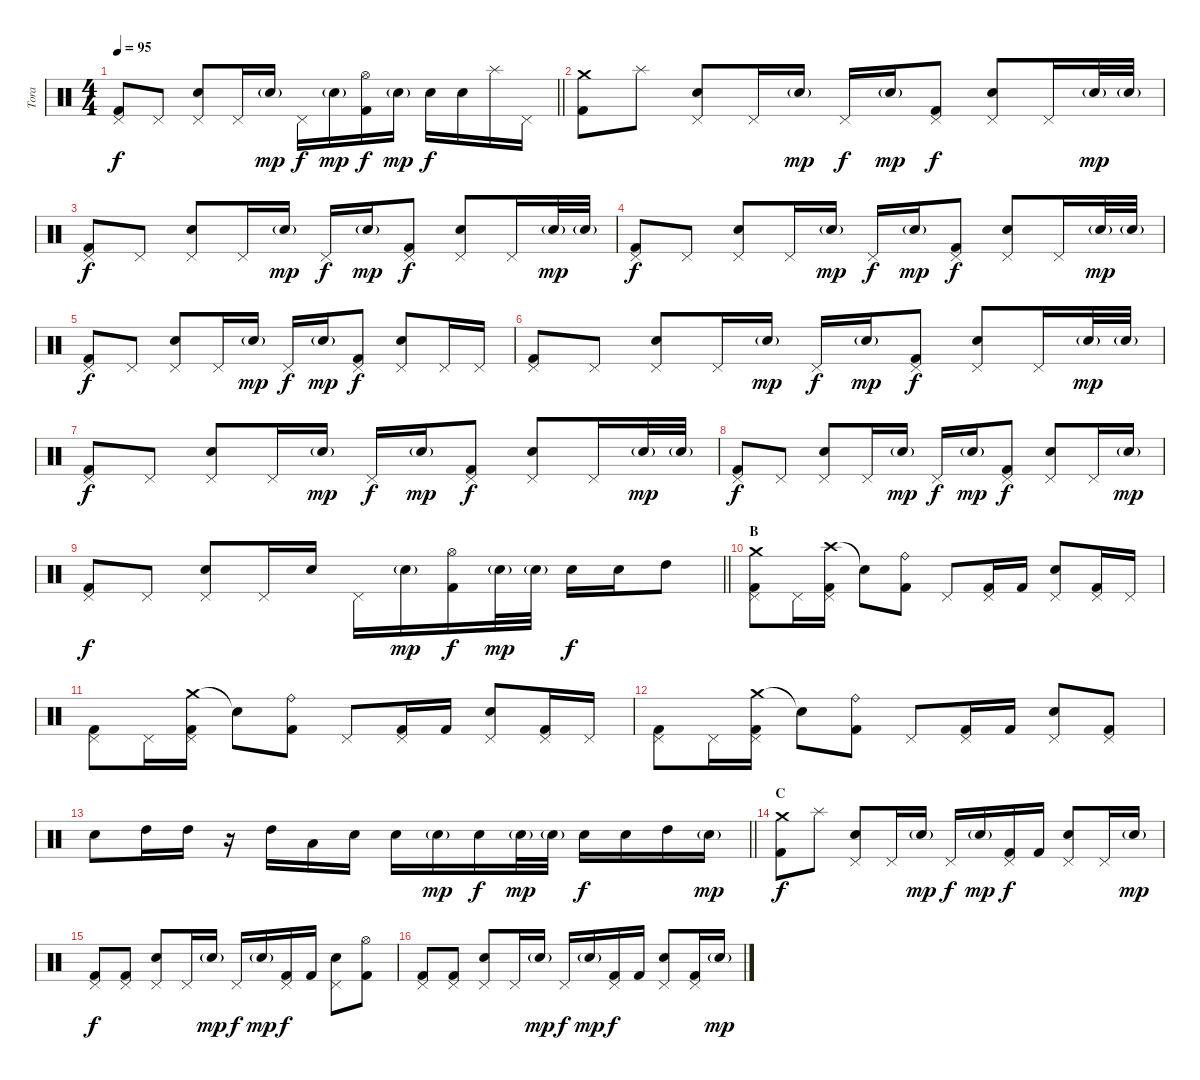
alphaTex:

\track ("Tora" "Tora") {instrument percussion}
\staff {score}
\articulation defaults
\ts (4 4)
\tempo 95
\clef neutral
\barLineRight lightlight
\ks c
("Pedal Hi-Hat (hit)" "Kick (hit) 2").8{dy f} "Pedal Hi-Hat (hit)".8 ("Pedal Hi-Hat (hit)" "Electric Snare (hit)").8 "Pedal Hi-Hat (hit)".16 "Electric Snare (hit)"{g}.16{dy mp} "Pedal Hi-Hat (hit)".16{dy f} "Electric Snare (hit)"{g}.16{dy mp} ("Hi-Hat (open)" "Kick (hit) 2").16{dy f} "Electric Snare (hit)"{g}.16{dy mp} "Electric Snare (hit)".16{dy f} "Electric Snare (hit)".16 "Splash (hit)".16 "Pedal Hi-Hat (hit)".16 |
("Crash medium (hit)" "Kick (hit) 2").8 "Splash (hit)".8 ("Pedal Hi-Hat (hit)" "Electric Snare (hit)").8 "Pedal Hi-Hat (hit)".16 "Electric Snare (hit)"{g}.16{dy mp} "Pedal Hi-Hat (hit)".16{dy f} "Electric Snare (hit)"{g}.16{dy mp} ("Pedal Hi-Hat (hit)" "Kick (hit) 2").8{dy f} ("Pedal Hi-Hat (hit)" "Electric Snare (hit)").8 "Pedal Hi-Hat (hit)".16 "Electric Snare (hit)"{g}.32{dy mp} "Electric Snare (hit)"{g}.32 |
("Pedal Hi-Hat (hit)" "Kick (hit) 2").8{dy f} "Pedal Hi-Hat (hit)".8 ("Pedal Hi-Hat (hit)" "Electric Snare (hit)").8 "Pedal Hi-Hat (hit)".16 "Electric Snare (hit)"{g}.16{dy mp} "Pedal Hi-Hat (hit)".16{dy f} "Electric Snare (hit)"{g}.16{dy mp} ("Pedal Hi-Hat (hit)" "Kick (hit) 2").8{dy f} ("Pedal Hi-Hat (hit)" "Electric Snare (hit)").8 "Pedal Hi-Hat (hit)".16 "Electric Snare (hit)"{g}.32{dy mp} "Electric Snare (hit)"{g}.32 |
("Pedal Hi-Hat (hit)" "Kick (hit) 2").8{dy f} "Pedal Hi-Hat (hit)".8 ("Pedal Hi-Hat (hit)" "Electric Snare (hit)").8 "Pedal Hi-Hat (hit)".16 "Electric Snare (hit)"{g}.16{dy mp} "Pedal Hi-Hat (hit)".16{dy f} "Electric Snare (hit)"{g}.16{dy mp} ("Pedal Hi-Hat (hit)" "Kick (hit) 2").8{dy f} ("Pedal Hi-Hat (hit)" "Electric Snare (hit)").8 "Pedal Hi-Hat (hit)".16 "Electric Snare (hit)"{g}.32{dy mp} "Electric Snare (hit)"{g}.32 |
("Pedal Hi-Hat (hit)" "Kick (hit) 2").8{dy f} "Pedal Hi-Hat (hit)".8 ("Pedal Hi-Hat (hit)" "Electric Snare (hit)").8 "Pedal Hi-Hat (hit)".16 "Electric Snare (hit)"{g}.16{dy mp} "Pedal Hi-Hat (hit)".16{dy f} "Electric Snare (hit)"{g}.16{dy mp} ("Pedal Hi-Hat (hit)" "Kick (hit) 2").8{dy f} ("Pedal Hi-Hat (hit)" "Electric Snare (hit)").8 "Pedal Hi-Hat (hit)".16 "Pedal Hi-Hat (hit)".16 |
("Pedal Hi-Hat (hit)" "Kick (hit) 2").8 "Pedal Hi-Hat (hit)".8 ("Pedal Hi-Hat (hit)" "Electric Snare (hit)").8 "Pedal Hi-Hat (hit)".16 "Electric Snare (hit)"{g}.16{dy mp} "Pedal Hi-Hat (hit)".16{dy f} "Electric Snare (hit)"{g}.16{dy mp} ("Pedal Hi-Hat (hit)" "Kick (hit) 2").8{dy f} ("Pedal Hi-Hat (hit)" "Electric Snare (hit)").8 "Pedal Hi-Hat (hit)".16 "Electric Snare (hit)"{g}.32{dy mp} "Electric Snare (hit)"{g}.32 |
("Pedal Hi-Hat (hit)" "Kick (hit) 2").8{dy f} "Pedal Hi-Hat (hit)".8 ("Pedal Hi-Hat (hit)" "Electric Snare (hit)").8 "Pedal Hi-Hat (hit)".16 "Electric Snare (hit)"{g}.16{dy mp} "Pedal Hi-Hat (hit)".16{dy f} "Electric Snare (hit)"{g}.16{dy mp} ("Pedal Hi-Hat (hit)" "Kick (hit) 2").8{dy f} ("Pedal Hi-Hat (hit)" "Electric Snare (hit)").8 "Pedal Hi-Hat (hit)".16 "Electric Snare (hit)"{g}.32{dy mp} "Electric Snare (hit)"{g}.32 |
("Pedal Hi-Hat (hit)" "Kick (hit) 2").8{dy f} "Pedal Hi-Hat (hit)".8 ("Pedal Hi-Hat (hit)" "Electric Snare (hit)").8 "Pedal Hi-Hat (hit)".16 "Electric Snare (hit)"{g}.16{dy mp} "Pedal Hi-Hat (hit)".16{dy f} "Electric Snare (hit)"{g}.16{dy mp} ("Pedal Hi-Hat (hit)" "Kick (hit) 2").8{dy f} ("Pedal Hi-Hat (hit)" "Electric Snare (hit)").8 "Pedal Hi-Hat (hit)".16 "Electric Snare (hit)"{g}.16{dy mp} |
\barLineRight lightlight
("Pedal Hi-Hat (hit)" "Kick (hit) 2").8{dy f} "Pedal Hi-Hat (hit)".8 ("Pedal Hi-Hat (hit)" "Electric Snare (hit)").8 "Pedal Hi-Hat (hit)".16 "Electric Snare (hit)".16 "Pedal Hi-Hat (hit)".16 "Electric Snare (hit)"{g}.16{dy mp} ("Hi-Hat (open)" "Kick (hit) 2").16{dy f} "Electric Snare (hit)"{g}.32{dy mp} "Electric Snare (hit)"{g}.32 "Electric Snare (hit)".16{dy f} "Electric Snare (hit)".16 "High Tom (hit)".8 |
\section ("" "B")
("Crash medium (hit)" "Pedal Hi-Hat (hit)" "Kick (hit) 2").8 "Pedal Hi-Hat (hit)".16 ("Crash high (hit)" "Pedal Hi-Hat (hit)" "Kick (hit) 2").16 "Snare (hit)"{t}.8 ("Ride (bell)" "Kick (hit) 2").8 "Pedal Hi-Hat (hit)".8 ("Pedal Hi-Hat (hit)" "Kick (hit) 2").16 "Kick (hit) 2".16 ("Pedal Hi-Hat (hit)" "Electric Snare (hit)").8 ("Pedal Hi-Hat (hit)" "Kick (hit) 2").16 "Pedal Hi-Hat (hit)".16 |
("Pedal Hi-Hat (hit)" "Kick (hit) 2").8 "Pedal Hi-Hat (hit)".16 ("Crash medium (hit)" "Pedal Hi-Hat (hit)" "Kick (hit) 2").16 "Snare (hit)"{t}.8 ("Ride (bell)" "Kick (hit) 2").8 "Pedal Hi-Hat (hit)".8 ("Pedal Hi-Hat (hit)" "Kick (hit) 2").16 "Kick (hit) 2".16 ("Pedal Hi-Hat (hit)" "Electric Snare (hit)").8 ("Pedal Hi-Hat (hit)" "Kick (hit) 2").16 "Pedal Hi-Hat (hit)".16 |
("Pedal Hi-Hat (hit)" "Kick (hit) 2").8 "Pedal Hi-Hat (hit)".16 ("Crash medium (hit)" "Pedal Hi-Hat (hit)" "Kick (hit) 2").16 "Snare (hit)"{t}.8 ("Ride (bell)" "Kick (hit) 2").8 "Pedal Hi-Hat (hit)".8 ("Pedal Hi-Hat (hit)" "Kick (hit) 2").16 "Kick (hit) 2".16 ("Pedal Hi-Hat (hit)" "Electric Snare (hit)").8 ("Pedal Hi-Hat (hit)" "Kick (hit) 2").8 |
\barLineRight lightlight "Electric Snare (hit)".8 "High Tom (hit)".16 "High Tom (hit)".16
r.16 "High Tom (hit)".16 "Low Tom (hit)".16 "Electric Snare (hit)".16 "Electric Snare (hit)".16 "Electric Snare (hit)"{g}.16{dy mp} "Electric Snare (hit)".16{dy f} "Electric Snare (hit)"{g}.32{dy mp} "Electric Snare (hit)"{g}.32 "Electric Snare (hit)".16{dy f} "Electric Snare (hit)".16 "High Tom (hit)".16 "Electric Snare (hit)"{g}.16{dy mp} |
\section ("" "C")
("Crash medium (hit)" "Kick (hit) 2").8{dy f} "Splash (hit)".8 ("Pedal Hi-Hat (hit)" "Electric Snare (hit)").8 "Pedal Hi-Hat (hit)".16 "Electric Snare (hit)"{g}.16{dy mp} "Pedal Hi-Hat (hit)".16{dy f} "Electric Snare (hit)"{g}.16{dy mp} ("Pedal Hi-Hat (hit)" "Kick (hit) 2").16{dy f} "Kick (hit) 2".16 ("Pedal Hi-Hat (hit)" "Electric Snare (hit)").8 "Pedal Hi-Hat (hit)".16 "Electric Snare (hit)"{g}.16{dy mp} |
("Pedal Hi-Hat (hit)" "Kick (hit) 2").8{dy f} ("Pedal Hi-Hat (hit)" "Kick (hit) 2").8 ("Pedal Hi-Hat (hit)" "Electric Snare (hit)").8 "Pedal Hi-Hat (hit)".16 "Electric Snare (hit)"{g}.16{dy mp} "Pedal Hi-Hat (hit)".16{dy f} "Electric Snare (hit)"{g}.16{dy mp} ("Pedal Hi-Hat (hit)" "Kick (hit) 2").16{dy f} "Kick (hit) 2".16 ("Pedal Hi-Hat (hit)" "Electric Snare (hit)").8 ("Hi-Hat (open)" "Kick (hit) 2").8 |
("Pedal Hi-Hat (hit)" "Kick (hit) 2").8 ("Pedal Hi-Hat (hit)" "Kick (hit) 2").8 ("Pedal Hi-Hat (hit)" "Electric Snare (hit)").8 "Pedal Hi-Hat (hit)".16 "Electric Snare (hit)"{g}.16{dy mp} "Pedal Hi-Hat (hit)".16{dy f} "Electric Snare (hit)"{g}.16{dy mp} ("Pedal Hi-Hat (hit)" "Kick (hit) 2").16{dy f} "Kick (hit) 2".16 ("Pedal Hi-Hat (hit)" "Electric Snare (hit)").8 ("Pedal Hi-Hat (hit)" "Kick (hit) 2").16 "Electric Snare (hit)"{g}.16{dy mp}
